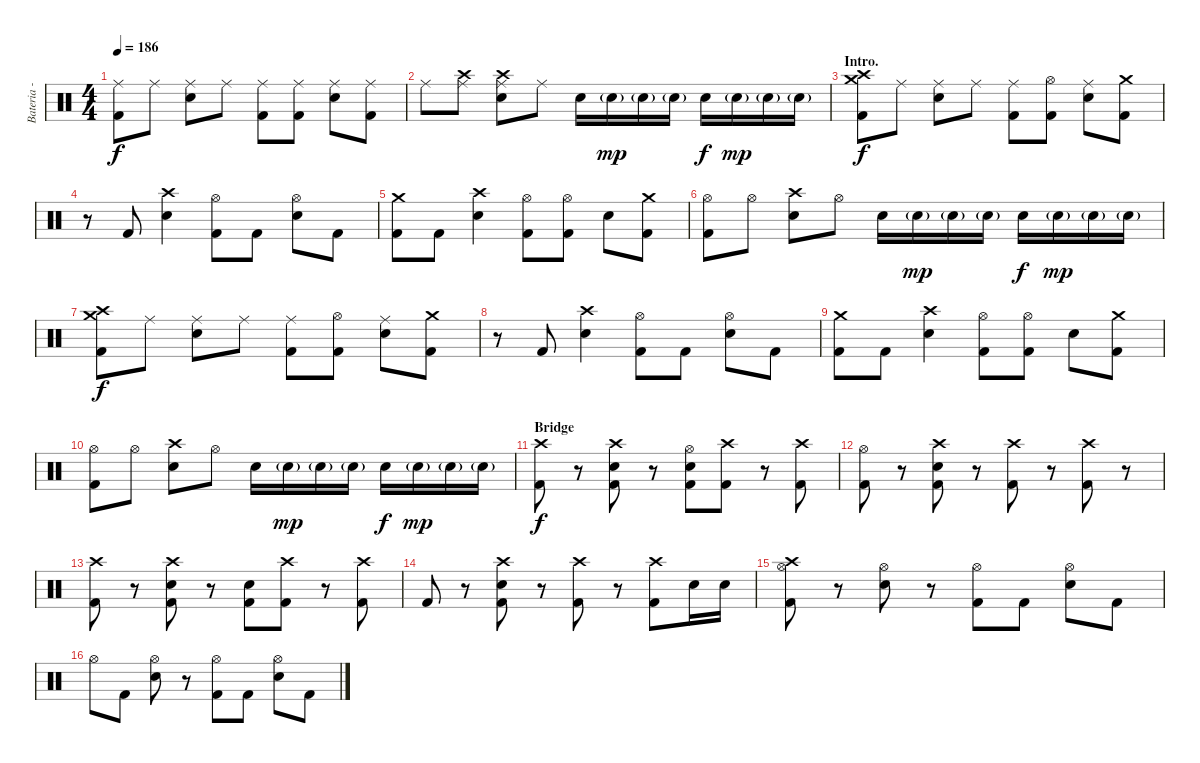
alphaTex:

\track ("Bateria - Larzon" "Bateria - ") {instrument percussion}
\staff {score}
\articulation defaults
\ts (4 4)
\tempo 186
\clef neutral
\ks c
("Kick (hit) 2" "Ride (middle)").8{dy f} "Ride (middle)".8 ("Snare (hit) 2" "Ride (middle)").8 "Ride (middle)".8 ("Kick (hit) 2" "Ride (middle)").8 ("Kick (hit) 2" "Ride (middle)").8 ("Snare (hit) 2" "Ride (middle)").8 ("Kick (hit) 2" "Ride (middle)").8 |
"Ride (middle)".8 ("Crash high (hit)" "Ride (middle)").8 ("Crash high (hit)" "Snare (hit) 2" "Ride (middle)").8 "Ride (middle)".8 "Snare (hit) 2".16 "Snare (hit) 2"{g}.16{dy mp} "Snare (hit) 2"{g}.16 "Snare (hit) 2"{g}.16 "Snare (hit) 2".16{dy f} "Snare (hit) 2"{g}.16{dy mp} "Snare (hit) 2"{g}.16 "Snare (hit) 2"{g}.16 |
\section ("" "Intro.")
("Kick (hit) 2" "Crash medium (hit)" "Crash high (hit)").8{dy f} "Ride (middle)".8 ("Snare (hit) 2" "Ride (middle)").8 "Ride (middle)".8 ("Kick (hit) 2" "Ride (middle)").8 ("Kick (hit) 2" "Hi-Hat (open)").8 ("Snare (hit) 2" "Ride (middle)").8 ("Kick (hit) 2" "Crash medium (hit)").8 |
r.8 "Kick (hit) 2".8 ("Snare (hit) 2" "Crash high (hit)").4 ("Kick (hit) 2" "Hi-Hat (open)").8 "Kick (hit) 2".8 ("Snare (hit) 2" "Hi-Hat (open)").8 "Kick (hit) 2".8 |
("Kick (hit) 2" "Crash medium (hit)").8 "Kick (hit) 2".8 ("Snare (hit) 2" "Crash high (hit)").4 ("Kick (hit) 2" "Hi-Hat (open)").8 ("Kick (hit) 2" "Hi-Hat (open)").8 "Snare (hit) 2".8 ("Kick (hit) 2" "Crash medium (hit)").8 |
("Kick (hit) 2" "Hi-Hat (open)").8 "Hi-Hat (open)".8 ("Snare (hit) 2" "Crash high (hit)").8 "Hi-Hat (open)".8 "Snare (hit) 2".16 "Snare (hit) 2"{g}.16{dy mp} "Snare (hit) 2"{g}.16 "Snare (hit) 2"{g}.16 "Snare (hit) 2".16{dy f} "Snare (hit) 2"{g}.16{dy mp} "Snare (hit) 2"{g}.16 "Snare (hit) 2"{g}.16 |
("Kick (hit) 2" "Crash medium (hit)" "Crash high (hit)").8{dy f} "Ride (middle)".8 ("Snare (hit) 2" "Ride (middle)").8 "Ride (middle)".8 ("Kick (hit) 2" "Ride (middle)").8 ("Kick (hit) 2" "Hi-Hat (open)").8 ("Snare (hit) 2" "Ride (middle)").8 ("Kick (hit) 2" "Crash medium (hit)").8 |
r.8 "Kick (hit) 2".8 ("Snare (hit) 2" "Crash high (hit)").4 ("Kick (hit) 2" "Hi-Hat (open)").8 "Kick (hit) 2".8 ("Snare (hit) 2" "Hi-Hat (open)").8 "Kick (hit) 2".8 |
("Kick (hit) 2" "Crash medium (hit)").8 "Kick (hit) 2".8 ("Snare (hit) 2" "Crash high (hit)").4 ("Kick (hit) 2" "Hi-Hat (open)").8 ("Kick (hit) 2" "Hi-Hat (open)").8 "Snare (hit) 2".8 ("Kick (hit) 2" "Crash medium (hit)").8 |
("Kick (hit) 2" "Hi-Hat (open)").8 "Hi-Hat (open)".8 ("Snare (hit) 2" "Crash high (hit)").8 "Hi-Hat (open)".8 "Snare (hit) 2".16 "Snare (hit) 2"{g}.16{dy mp} "Snare (hit) 2"{g}.16 "Snare (hit) 2"{g}.16 "Snare (hit) 2".16{dy f} "Snare (hit) 2"{g}.16{dy mp} "Snare (hit) 2"{g}.16 "Snare (hit) 2"{g}.16 |
\section ("" "Bridge")
("Kick (hit) 2" "Crash high (hit)").8{dy f} r.8 ("Kick (hit) 2" "Snare (hit) 2" "Crash high (hit)").8 r.8 ("Kick (hit) 2" "Snare (hit) 2" "Hi-Hat (open)").8 ("Kick (hit) 2" "Crash high (hit)").8 r.8 ("Kick (hit) 2" "Crash high (hit)").8 |
("Kick (hit) 2" "Hi-Hat (open)").8 r.8 ("Kick (hit) 2" "Snare (hit) 2" "Crash high (hit)").8 r.8 ("Kick (hit) 2" "Crash high (hit)").8 r.8 ("Kick (hit) 2" "Crash high (hit)").8 r.8 |
("Kick (hit) 2" "Crash high (hit)").8 r.8 ("Kick (hit) 2" "Snare (hit) 2" "Crash high (hit)").8 r.8 ("Kick (hit) 2" "Snare (hit) 2").8 ("Kick (hit) 2" "Crash high (hit)").8 r.8 ("Kick (hit) 2" "Crash high (hit)").8 |
"Kick (hit) 2".8 r.8 ("Kick (hit) 2" "Snare (hit) 2" "Crash high (hit)").8 r.8 ("Kick (hit) 2" "Crash high (hit)").8 r.8 ("Kick (hit) 2" "Crash high (hit)").8 "Snare (hit) 2".16 "Snare (hit) 2".16 |
("Kick (hit) 2" "Crash high (hit)" "Hi-Hat (open)").8 r.8 ("Snare (hit) 2" "Hi-Hat (open)").8 r.8 ("Kick (hit) 2" "Hi-Hat (open)").8 "Kick (hit) 2".8 ("Snare (hit) 2" "Hi-Hat (open)").8 "Kick (hit) 2".8 |
"Hi-Hat (open)".8 "Kick (hit) 2".8 ("Snare (hit) 2" "Hi-Hat (open)").8 r.8 ("Kick (hit) 2" "Hi-Hat (open)").8 "Kick (hit) 2".8 ("Snare (hit) 2" "Hi-Hat (open)").8 "Kick (hit) 2".8
